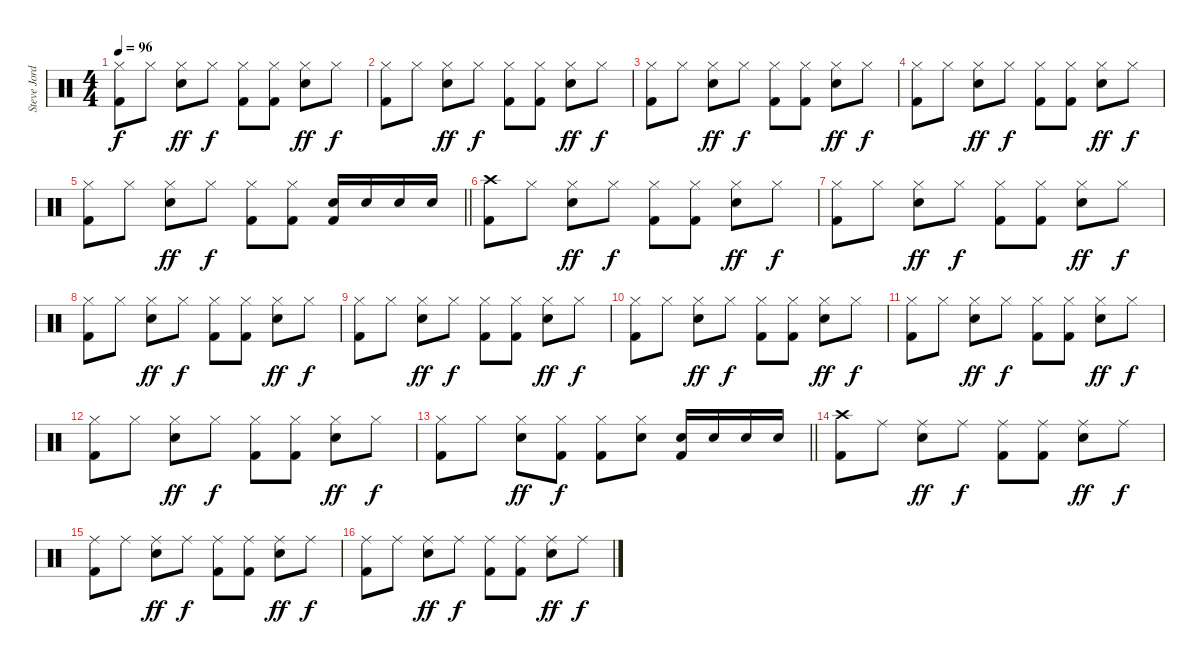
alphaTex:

\track ("Steve Jordan" "Steve Jord") {instrument percussion}
\staff {score}
\articulation defaults
\ts (4 4)
\tempo 96
\clef neutral
\ks c
("Hi-Hat (closed)" "Kick (hit) 2").8{dy f} "Hi-Hat (closed)".8 ("Hi-Hat (closed)" "Snare (hit) 2").8{dy ff} "Hi-Hat (closed)".8{dy f} ("Hi-Hat (closed)" "Kick (hit) 2").8 ("Hi-Hat (closed)" "Kick (hit) 2").8 ("Hi-Hat (closed)" "Snare (hit) 2").8{dy ff} "Hi-Hat (closed)".8{dy f} |
("Hi-Hat (closed)" "Kick (hit) 2").8 "Hi-Hat (closed)".8 ("Hi-Hat (closed)" "Snare (hit) 2").8{dy ff} "Hi-Hat (closed)".8{dy f} ("Hi-Hat (closed)" "Kick (hit) 2").8 ("Hi-Hat (closed)" "Kick (hit) 2").8 ("Hi-Hat (closed)" "Snare (hit) 2").8{dy ff} "Hi-Hat (closed)".8{dy f} |
("Hi-Hat (closed)" "Kick (hit) 2").8 "Hi-Hat (closed)".8 ("Hi-Hat (closed)" "Snare (hit) 2").8{dy ff} "Hi-Hat (closed)".8{dy f} ("Hi-Hat (closed)" "Kick (hit) 2").8 ("Hi-Hat (closed)" "Kick (hit) 2").8 ("Hi-Hat (closed)" "Snare (hit) 2").8{dy ff} "Hi-Hat (closed)".8{dy f} |
("Hi-Hat (closed)" "Kick (hit) 2").8 "Hi-Hat (closed)".8 ("Hi-Hat (closed)" "Snare (hit) 2").8{dy ff} "Hi-Hat (closed)".8{dy f} ("Hi-Hat (closed)" "Kick (hit) 2").8 ("Hi-Hat (closed)" "Kick (hit) 2").8 ("Hi-Hat (closed)" "Snare (hit) 2").8{dy ff} "Hi-Hat (closed)".8{dy f} |
\barLineRight lightlight
("Hi-Hat (closed)" "Kick (hit) 2").8 "Hi-Hat (closed)".8 ("Hi-Hat (closed)" "Snare (hit) 2").8{dy ff} "Hi-Hat (closed)".8{dy f} ("Hi-Hat (closed)" "Kick (hit) 2").8 ("Hi-Hat (closed)" "Kick (hit) 2").8 ("Snare (hit) 2" "Kick (hit) 2").16 "Snare (hit) 2".16 "Snare (hit) 2".16 "Snare (hit) 2".16 |
("Crash high (hit)" "Kick (hit) 2").8 "Hi-Hat (closed)".8 ("Hi-Hat (closed)" "Snare (hit) 2").8{dy ff} "Hi-Hat (closed)".8{dy f} ("Hi-Hat (closed)" "Kick (hit) 2").8 ("Hi-Hat (closed)" "Kick (hit) 2").8 ("Hi-Hat (closed)" "Snare (hit) 2").8{dy ff} "Hi-Hat (closed)".8{dy f} |
("Hi-Hat (closed)" "Kick (hit) 2").8 "Hi-Hat (closed)".8 ("Hi-Hat (closed)" "Snare (hit) 2").8{dy ff} "Hi-Hat (closed)".8{dy f} ("Hi-Hat (closed)" "Kick (hit) 2").8 ("Hi-Hat (closed)" "Kick (hit) 2").8 ("Hi-Hat (closed)" "Snare (hit) 2").8{dy ff} "Hi-Hat (closed)".8{dy f} |
("Hi-Hat (closed)" "Kick (hit) 2").8 "Hi-Hat (closed)".8 ("Hi-Hat (closed)" "Snare (hit) 2").8{dy ff} "Hi-Hat (closed)".8{dy f} ("Hi-Hat (closed)" "Kick (hit) 2").8 ("Hi-Hat (closed)" "Kick (hit) 2").8 ("Hi-Hat (closed)" "Snare (hit) 2").8{dy ff} "Hi-Hat (closed)".8{dy f} |
("Hi-Hat (closed)" "Kick (hit) 2").8 "Hi-Hat (closed)".8 ("Hi-Hat (closed)" "Snare (hit) 2").8{dy ff} "Hi-Hat (closed)".8{dy f} ("Hi-Hat (closed)" "Kick (hit) 2").8 ("Hi-Hat (closed)" "Kick (hit) 2").8 ("Hi-Hat (closed)" "Snare (hit) 2").8{dy ff} "Hi-Hat (closed)".8{dy f} |
("Hi-Hat (closed)" "Kick (hit) 2").8 "Hi-Hat (closed)".8 ("Hi-Hat (closed)" "Snare (hit) 2").8{dy ff} "Hi-Hat (closed)".8{dy f} ("Hi-Hat (closed)" "Kick (hit) 2").8 ("Hi-Hat (closed)" "Kick (hit) 2").8 ("Hi-Hat (closed)" "Snare (hit) 2").8{dy ff} "Hi-Hat (closed)".8{dy f} |
("Hi-Hat (closed)" "Kick (hit) 2").8 "Hi-Hat (closed)".8 ("Hi-Hat (closed)" "Snare (hit) 2").8{dy ff} "Hi-Hat (closed)".8{dy f} ("Hi-Hat (closed)" "Kick (hit) 2").8 ("Hi-Hat (closed)" "Kick (hit) 2").8 ("Hi-Hat (closed)" "Snare (hit) 2").8{dy ff} "Hi-Hat (closed)".8{dy f} |
("Hi-Hat (closed)" "Kick (hit) 2").8 "Hi-Hat (closed)".8 ("Hi-Hat (closed)" "Snare (hit) 2").8{dy ff} "Hi-Hat (closed)".8{dy f} ("Hi-Hat (closed)" "Kick (hit) 2").8 ("Hi-Hat (closed)" "Kick (hit) 2").8 ("Hi-Hat (closed)" "Snare (hit) 2").8{dy ff} "Hi-Hat (closed)".8{dy f} |
\barLineRight lightlight
("Hi-Hat (closed)" "Kick (hit) 2").8 "Hi-Hat (closed)".8 ("Hi-Hat (closed)" "Snare (hit) 2").8{dy ff} ("Hi-Hat (closed)" "Kick (hit) 2").8{dy f} ("Hi-Hat (closed)" "Kick (hit) 2").8 ("Hi-Hat (closed)" "Snare (hit) 2").8 ("Snare (hit) 2" "Kick (hit) 2").16 "Snare (hit) 2".16 "Snare (hit) 2".16 "Snare (hit) 2".16 |
("Crash high (hit)" "Kick (hit) 2").8{volume 8} "Ride (middle)".8 ("Ride (middle)" "Snare (hit) 2").8{dy ff} "Ride (middle)".8{dy f} ("Ride (middle)" "Kick (hit) 2").8 ("Ride (middle)" "Kick (hit) 2").8 ("Ride (middle)" "Snare (hit) 2").8{dy ff} "Ride (middle)".8{dy f} |
("Ride (middle)" "Kick (hit) 2").8 "Ride (middle)".8 ("Ride (middle)" "Snare (hit) 2").8{dy ff} "Ride (middle)".8{dy f} ("Ride (middle)" "Kick (hit) 2").8 ("Ride (middle)" "Kick (hit) 2").8 ("Ride (middle)" "Snare (hit) 2").8{dy ff} "Ride (middle)".8{dy f} |
("Ride (middle)" "Kick (hit) 2").8 "Ride (middle)".8 ("Ride (middle)" "Snare (hit) 2").8{dy ff} "Ride (middle)".8{dy f} ("Ride (middle)" "Kick (hit) 2").8 ("Ride (middle)" "Kick (hit) 2").8 ("Ride (middle)" "Snare (hit) 2").8{dy ff} "Ride (middle)".8{dy f}
